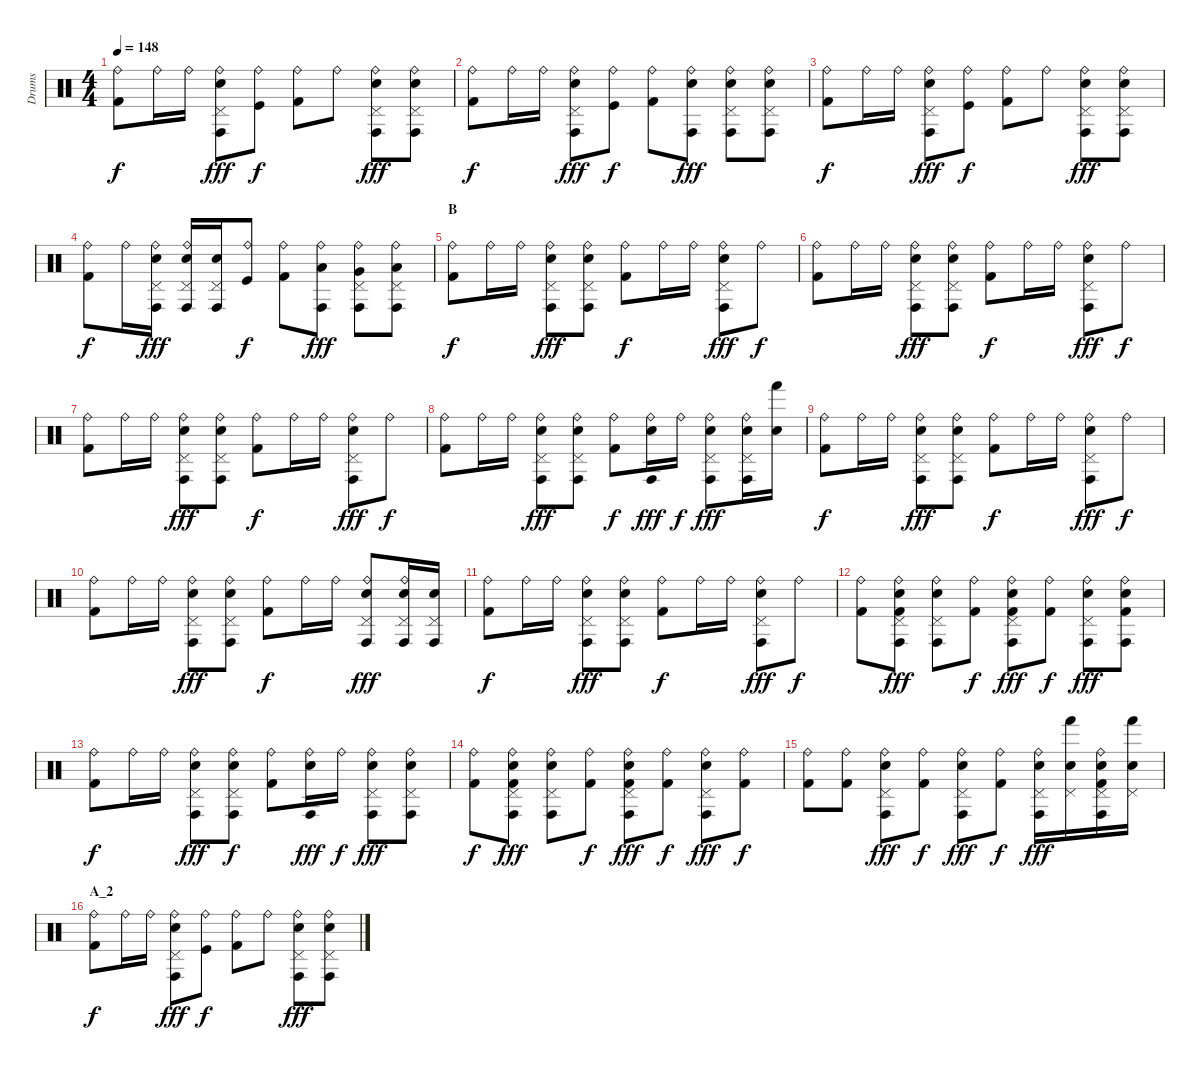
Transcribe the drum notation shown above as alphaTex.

\track ("Drums" "Drums") {instrument percussion}
\staff {score}
\articulation defaults
\ts (4 4)
\tempo 148
\clef neutral
\ks c
("Ride (bell)" "Kick (hit) 2").8{dy f} "Ride (bell)".16 "Ride (bell)".16 ("Ride (bell)" "Pedal Hi-Hat (hit)" "Conga high (hit)" "Electric Snare (hit)").8{dy fff} ("Ride (bell)" "Kick (hit)").8{dy f} ("Ride (bell)" "Kick (hit) 2").8 "Ride (bell)".8 ("Ride (bell)" "Pedal Hi-Hat (hit)" "Conga high (hit)" "Electric Snare (hit)").8{dy fff} ("Ride (bell)" "Pedal Hi-Hat (hit)" "Conga high (hit)" "Electric Snare (hit)").8 |
("Ride (bell)" "Kick (hit) 2").8{dy f} "Ride (bell)".16 "Ride (bell)".16 ("Ride (bell)" "Pedal Hi-Hat (hit)" "Conga high (hit)" "Electric Snare (hit)").8{dy fff} ("Ride (bell)" "Kick (hit)").8{dy f} ("Ride (bell)" "Kick (hit) 2").8 ("Ride (bell)" "Conga high (hit)" "Electric Snare (hit)").8{dy fff} ("Ride (bell)" "Pedal Hi-Hat (hit)" "Conga high (hit)" "Electric Snare (hit)").8 ("Ride (bell)" "Pedal Hi-Hat (hit)" "Conga high (hit)" "Electric Snare (hit)").8 |
("Ride (bell)" "Kick (hit) 2").8{dy f} "Ride (bell)".16 "Ride (bell)".16 ("Ride (bell)" "Pedal Hi-Hat (hit)" "Conga high (hit)" "Electric Snare (hit)").8{dy fff} ("Ride (bell)" "Kick (hit)").8{dy f} ("Ride (bell)" "Kick (hit) 2").8 "Ride (bell)".8 ("Ride (bell)" "Pedal Hi-Hat (hit)" "Conga high (hit)" "Electric Snare (hit)").8{dy fff} ("Ride (bell)" "Pedal Hi-Hat (hit)" "Conga high (hit)" "Electric Snare (hit)").8 |
("Ride (bell)" "Kick (hit) 2").8{dy f} "Ride (bell)".16 ("Ride (bell)" "Pedal Hi-Hat (hit)" "Conga high (hit)" "Electric Snare (hit)").16{dy fff} ("Ride (bell)" "Pedal Hi-Hat (hit)" "Conga high (hit)" "Electric Snare (hit)").16 ("Pedal Hi-Hat (hit)" "Conga high (hit)" "Electric Snare (hit)").16 ("Ride (bell)" "Kick (hit)").8{dy f} ("Ride (bell)" "Kick (hit) 2").8 ("Ride (bell)" "Conga high (hit)" "Low Tom (hit)").8{dy fff} ("Ride (bell)" "Pedal Hi-Hat (hit)" "Conga high (hit)" "Very Low Tom (hit)").8 ("Ride (bell)" "Pedal Hi-Hat (hit)" "Conga high (hit)" "Low Floor Tom (hit)").8 |
\section ("" "B")
("Ride (bell)" "Kick (hit) 2").8{dy f} "Ride (bell)".16 "Ride (bell)".16 ("Ride (bell)" "Pedal Hi-Hat (hit)" "Conga high (hit)" "Electric Snare (hit)").8{dy fff} ("Ride (bell)" "Pedal Hi-Hat (hit)" "Conga high (hit)" "Electric Snare (hit)").8 ("Ride (bell)" "Kick (hit) 2").8{dy f} "Ride (bell)".16 "Ride (bell)".16 ("Ride (bell)" "Pedal Hi-Hat (hit)" "Conga high (hit)" "Electric Snare (hit)").8{dy fff} "Ride (bell)".8{dy f} |
("Ride (bell)" "Kick (hit) 2").8 "Ride (bell)".16 "Ride (bell)".16 ("Ride (bell)" "Pedal Hi-Hat (hit)" "Conga high (hit)" "Electric Snare (hit)").8{dy fff} ("Ride (bell)" "Pedal Hi-Hat (hit)" "Conga high (hit)" "Electric Snare (hit)").8 ("Ride (bell)" "Kick (hit) 2").8{dy f} "Ride (bell)".16 "Ride (bell)".16 ("Ride (bell)" "Pedal Hi-Hat (hit)" "Conga high (hit)" "Electric Snare (hit)").8{dy fff} "Ride (bell)".8{dy f} |
("Ride (bell)" "Kick (hit) 2").8 "Ride (bell)".16 "Ride (bell)".16 ("Ride (bell)" "Pedal Hi-Hat (hit)" "Conga high (hit)" "Electric Snare (hit)").8{dy fff} ("Ride (bell)" "Pedal Hi-Hat (hit)" "Conga high (hit)" "Electric Snare (hit)").8 ("Ride (bell)" "Kick (hit) 2").8{dy f} "Ride (bell)".16 "Ride (bell)".16 ("Ride (bell)" "Pedal Hi-Hat (hit)" "Conga high (hit)" "Electric Snare (hit)").8{dy fff} "Ride (bell)".8{dy f} |
("Ride (bell)" "Kick (hit) 2").8 "Ride (bell)".16 "Ride (bell)".16 ("Ride (bell)" "Pedal Hi-Hat (hit)" "Conga high (hit)" "Electric Snare (hit)").8{dy fff} ("Ride (bell)" "Pedal Hi-Hat (hit)" "Conga high (hit)" "Electric Snare (hit)").8 ("Ride (bell)" "Kick (hit) 2").8{dy f} ("Ride (bell)" "Conga high (hit)" "Electric Snare (hit)").16{dy fff} "Ride (bell)".16{dy f} ("Ride (bell)" "Pedal Hi-Hat (hit)" "Conga high (hit)" "Electric Snare (hit)").8{dy fff} ("Ride (bell)" "Pedal Hi-Hat (hit)" "Conga high (hit)" "Electric Snare (hit)").16 ("Hand (hit)" "Electric Snare (hit)").16 |
("Ride (bell)" "Kick (hit) 2").8{dy f} "Ride (bell)".16 "Ride (bell)".16 ("Ride (bell)" "Pedal Hi-Hat (hit)" "Conga high (hit)" "Electric Snare (hit)").8{dy fff} ("Ride (bell)" "Pedal Hi-Hat (hit)" "Conga high (hit)" "Electric Snare (hit)").8 ("Ride (bell)" "Kick (hit) 2").8{dy f} "Ride (bell)".16 "Ride (bell)".16 ("Ride (bell)" "Pedal Hi-Hat (hit)" "Conga high (hit)" "Electric Snare (hit)").8{dy fff} "Ride (bell)".8{dy f} |
("Ride (bell)" "Kick (hit) 2").8 "Ride (bell)".16 "Ride (bell)".16 ("Ride (bell)" "Pedal Hi-Hat (hit)" "Conga high (hit)" "Electric Snare (hit)").8{dy fff} ("Ride (bell)" "Pedal Hi-Hat (hit)" "Conga high (hit)" "Electric Snare (hit)").8 ("Ride (bell)" "Kick (hit) 2").8{dy f} "Ride (bell)".16 "Ride (bell)".16 ("Ride (bell)" "Pedal Hi-Hat (hit)" "Conga high (hit)" "Electric Snare (hit)").8{dy fff} ("Ride (bell)" "Pedal Hi-Hat (hit)" "Conga high (hit)" "Electric Snare (hit)").16 ("Pedal Hi-Hat (hit)" "Conga high (hit)" "Electric Snare (hit)").16 |
("Ride (bell)" "Kick (hit) 2").8{dy f} "Ride (bell)".16 "Ride (bell)".16 ("Ride (bell)" "Pedal Hi-Hat (hit)" "Conga high (hit)" "Electric Snare (hit)").8{dy fff} ("Ride (bell)" "Pedal Hi-Hat (hit)" "Conga high (hit)" "Electric Snare (hit)").8 ("Ride (bell)" "Kick (hit) 2").8{dy f} "Ride (bell)".16 "Ride (bell)".16 ("Ride (bell)" "Pedal Hi-Hat (hit)" "Conga high (hit)" "Electric Snare (hit)").8{dy fff} "Ride (bell)".8{dy f} |
("Ride (bell)" "Kick (hit) 2").8 ("Ride (bell)" "Pedal Hi-Hat (hit)" "Conga high (hit)" "Electric Snare (hit)" "Kick (hit) 2").8{dy fff} ("Ride (bell)" "Pedal Hi-Hat (hit)" "Conga high (hit)" "Electric Snare (hit)").8 ("Ride (bell)" "Kick (hit) 2").8{dy f} ("Ride (bell)" "Pedal Hi-Hat (hit)" "Conga high (hit)" "Electric Snare (hit)" "Kick (hit) 2").8{dy fff} ("Ride (bell)" "Kick (hit) 2").8{dy f} ("Ride (bell)" "Pedal Hi-Hat (hit)" "Conga high (hit)" "Electric Snare (hit)").8{dy fff} ("Ride (bell)" "Conga high (hit)" "Electric Snare (hit)" "Kick (hit) 2").8 |
("Ride (bell)" "Kick (hit) 2").8{dy f} "Ride (bell)".16 "Ride (bell)".16 ("Ride (bell)" "Pedal Hi-Hat (hit)" "Conga high (hit)" "Electric Snare (hit)").8{dy fff} ("Ride (bell)" "Pedal Hi-Hat (hit)" "Conga high (hit)" "Electric Snare (hit)").8{dy f} ("Ride (bell)" "Kick (hit) 2").8 ("Ride (bell)" "Conga high (hit)" "Electric Snare (hit)").16{dy fff} "Ride (bell)".16{dy f} ("Ride (bell)" "Pedal Hi-Hat (hit)" "Conga high (hit)" "Electric Snare (hit)").8{dy fff} ("Ride (bell)" "Pedal Hi-Hat (hit)" "Conga high (hit)" "Electric Snare (hit)").8 |
("Ride (bell)" "Kick (hit) 2").8{dy f} ("Ride (bell)" "Pedal Hi-Hat (hit)" "Conga high (hit)" "Electric Snare (hit)" "Kick (hit) 2").8{dy fff} ("Ride (bell)" "Pedal Hi-Hat (hit)" "Conga high (hit)" "Electric Snare (hit)").8 ("Ride (bell)" "Kick (hit) 2").8{dy f} ("Ride (bell)" "Pedal Hi-Hat (hit)" "Conga high (hit)" "Electric Snare (hit)" "Kick (hit) 2").8{dy fff} ("Ride (bell)" "Kick (hit) 2").8{dy f} ("Ride (bell)" "Pedal Hi-Hat (hit)" "Conga high (hit)" "Electric Snare (hit)").8{dy fff} ("Ride (bell)" "Kick (hit) 2").8{dy f} |
("Ride (bell)" "Kick (hit) 2").8 ("Ride (bell)" "Kick (hit) 2").8 ("Ride (bell)" "Pedal Hi-Hat (hit)" "Conga high (hit)" "Electric Snare (hit)").8{dy fff} ("Ride (bell)" "Kick (hit) 2").8{dy f} ("Ride (bell)" "Pedal Hi-Hat (hit)" "Conga high (hit)" "Electric Snare (hit)").8{dy fff} ("Ride (bell)" "Kick (hit) 2").8{dy f} ("Ride (bell)" "Pedal Hi-Hat (hit)" "Conga high (hit)" "Electric Snare (hit)").16{dy fff} ("Pedal Hi-Hat (hit)" "Hand (hit)" "Electric Snare (hit)").16 ("Ride (bell)" "Pedal Hi-Hat (hit)" "Conga high (hit)" "Electric Snare (hit)" "Kick (hit) 2").16 ("Pedal Hi-Hat (hit)" "Hand (hit)" "Electric Snare (hit)").16 |
\section ("" "A_2")
("Ride (bell)" "Kick (hit) 2").8{dy f} "Ride (bell)".16 "Ride (bell)".16 ("Ride (bell)" "Pedal Hi-Hat (hit)" "Conga high (hit)" "Electric Snare (hit)").8{dy fff} ("Ride (bell)" "Kick (hit)").8{dy f} ("Ride (bell)" "Kick (hit) 2").8 "Ride (bell)".8 ("Ride (bell)" "Pedal Hi-Hat (hit)" "Conga high (hit)" "Electric Snare (hit)").8{dy fff} ("Ride (bell)" "Pedal Hi-Hat (hit)" "Conga high (hit)" "Electric Snare (hit)").8
